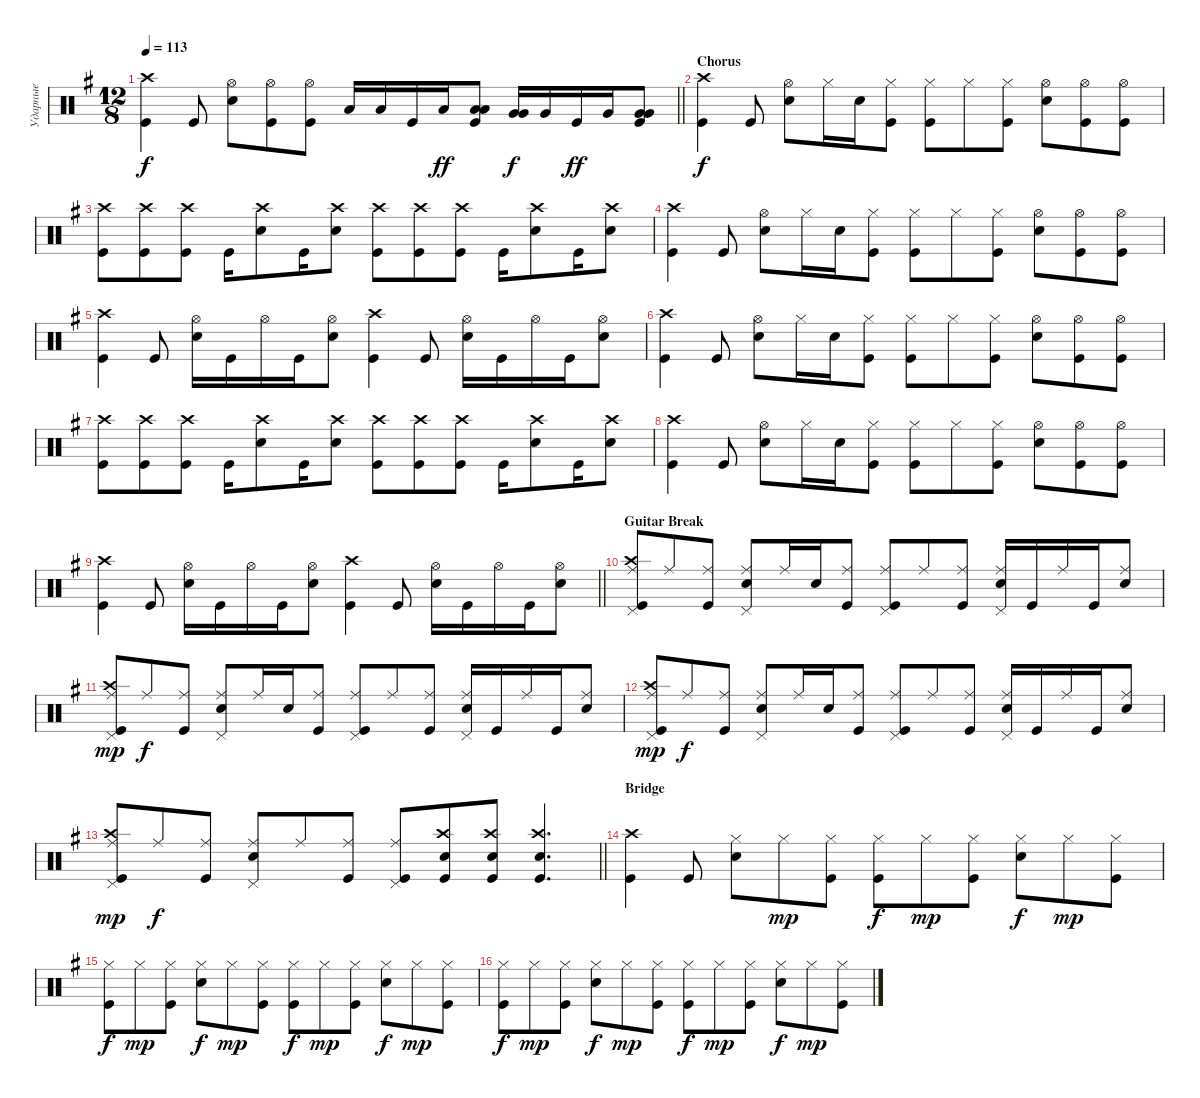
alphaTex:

\track ("Ударные" "Ударные") {instrument percussion}
\staff {score}
\articulation defaults
\ts (12 8)
\tempo 113
\clef neutral
\barLineRight lightlight
\ks eminor
("Kick (hit)" "Crash high (hit)").4{dy f} "Kick (hit)".8 ("Snare (hit) 2" "Hi-Hat (open)").8 ("Kick (hit)" "Hi-Hat (open)").8 ("Kick (hit)" "Hi-Hat (open)").8 "Low Tom (hit)".16 "Low Tom (hit)".16 "Kick (hit)".16 "Low Tom (hit)".16{dy ff} ("Low Tom (hit)" "Low Tom (hit)" "Kick (hit)").8{bd 120} ("Very Low Tom (hit)" "Very Low Tom (hit)").16{bd 120 dy f} "Very Low Tom (hit)".16 "Kick (hit)".16{dy ff} "Very Low Tom (hit)".16 ("Very Low Tom (hit)" "Very Low Tom (hit)" "Kick (hit)").8{bd 120} |
\section ("" "Chorus")
("Kick (hit)" "Crash high (hit)").4{dy f} "Kick (hit)".8 ("Snare (hit) 2" "Hi-Hat (open)").8 "Hi-Hat (closed)".16 "Snare (hit) 2".16 ("Kick (hit)" "Hi-Hat (closed)").8 ("Kick (hit)" "Hi-Hat (closed)").8 "Hi-Hat (closed)".8 ("Hi-Hat (closed)" "Kick (hit)").8 ("Snare (hit) 2" "Hi-Hat (open)").8 ("Hi-Hat (open)" "Kick (hit)").8 ("Hi-Hat (open)" "Kick (hit)").8 |
("Kick (hit)" "Crash high (hit)").8 ("Kick (hit)" "Crash high (hit)").8 ("Kick (hit)" "Crash high (hit)").8 "Kick (hit)".16 ("Snare (hit) 2" "Crash high (hit)").8 "Kick (hit)".16 ("Snare (hit) 2" "Crash high (hit)").8 ("Kick (hit)" "Crash high (hit)").8 ("Kick (hit)" "Crash high (hit)").8 ("Kick (hit)" "Crash high (hit)").8 "Kick (hit)".16 ("Snare (hit) 2" "Crash high (hit)").8 "Kick (hit)".16 ("Snare (hit) 2" "Crash high (hit)").8 |
("Kick (hit)" "Crash high (hit)").4 "Kick (hit)".8 ("Snare (hit) 2" "Hi-Hat (open)").8 "Hi-Hat (closed)".16 "Snare (hit) 2".16 ("Kick (hit)" "Hi-Hat (closed)").8 ("Kick (hit)" "Hi-Hat (closed)").8 "Hi-Hat (closed)".8 ("Hi-Hat (closed)" "Kick (hit)").8 ("Snare (hit) 2" "Hi-Hat (open)").8 ("Hi-Hat (open)" "Kick (hit)").8 ("Hi-Hat (open)" "Kick (hit)").8 |
("Kick (hit)" "Crash high (hit)").4 "Kick (hit)".8 ("Snare (hit) 2" "Hi-Hat (open)").16 "Kick (hit)".16 "Hi-Hat (open)".16 "Kick (hit)".16 ("Hi-Hat (open)" "Snare (hit) 2").8 ("Kick (hit)" "Crash high (hit)").4 "Kick (hit)".8 ("Snare (hit) 2" "Hi-Hat (open)").16 "Kick (hit)".16 "Hi-Hat (open)".16 "Kick (hit)".16 ("Hi-Hat (open)" "Snare (hit) 2").8 |
("Kick (hit)" "Crash high (hit)").4 "Kick (hit)".8 ("Snare (hit) 2" "Hi-Hat (open)").8 "Hi-Hat (closed)".16 "Snare (hit) 2".16 ("Kick (hit)" "Hi-Hat (closed)").8 ("Kick (hit)" "Hi-Hat (closed)").8 "Hi-Hat (closed)".8 ("Hi-Hat (closed)" "Kick (hit)").8 ("Snare (hit) 2" "Hi-Hat (open)").8 ("Hi-Hat (open)" "Kick (hit)").8 ("Hi-Hat (open)" "Kick (hit)").8 |
("Kick (hit)" "Crash high (hit)").8 ("Kick (hit)" "Crash high (hit)").8 ("Kick (hit)" "Crash high (hit)").8 "Kick (hit)".16 ("Snare (hit) 2" "Crash high (hit)").8 "Kick (hit)".16 ("Snare (hit) 2" "Crash high (hit)").8 ("Kick (hit)" "Crash high (hit)").8 ("Kick (hit)" "Crash high (hit)").8 ("Kick (hit)" "Crash high (hit)").8 "Kick (hit)".16 ("Snare (hit) 2" "Crash high (hit)").8 "Kick (hit)".16 ("Snare (hit) 2" "Crash high (hit)").8 |
("Kick (hit)" "Crash high (hit)").4 "Kick (hit)".8 ("Snare (hit) 2" "Hi-Hat (open)").8 "Hi-Hat (closed)".16 "Snare (hit) 2".16 ("Kick (hit)" "Hi-Hat (closed)").8 ("Kick (hit)" "Hi-Hat (closed)").8 "Hi-Hat (closed)".8 ("Hi-Hat (closed)" "Kick (hit)").8 ("Snare (hit) 2" "Hi-Hat (open)").8 ("Hi-Hat (open)" "Kick (hit)").8 ("Hi-Hat (open)" "Kick (hit)").8 |
\barLineRight lightlight
("Kick (hit)" "Crash high (hit)").4 "Kick (hit)".8 ("Snare (hit) 2" "Hi-Hat (open)").16 "Kick (hit)".16 "Hi-Hat (open)".16 "Kick (hit)".16 ("Hi-Hat (open)" "Snare (hit) 2").8 ("Kick (hit)" "Crash high (hit)").4 "Kick (hit)".8 ("Snare (hit) 2" "Hi-Hat (open)").16 "Kick (hit)".16 "Hi-Hat (open)".16 "Kick (hit)".16 ("Hi-Hat (open)" "Snare (hit) 2").8 |
\section ("" "Guitar Break")
("Ride (middle)" "Kick (hit)" "Crash high (hit)" "Pedal Hi-Hat (hit)").8 "Ride (middle)".8 ("Ride (middle)" "Kick (hit)").8 ("Ride (middle)" "Snare (hit) 2" "Pedal Hi-Hat (hit)").8 "Ride (middle)".16 "Snare (hit) 2".16 ("Ride (middle)" "Kick (hit)").8 ("Ride (middle)" "Kick (hit)" "Pedal Hi-Hat (hit)").8 "Ride (middle)".8 ("Ride (middle)" "Kick (hit)").8 ("Ride (middle)" "Snare (hit) 2" "Pedal Hi-Hat (hit)").16 "Kick (hit)".16 "Ride (middle)".16 "Kick (hit)".16 ("Ride (middle)" "Snare (hit) 2").8 |
("Crash high (hit)" "Kick (hit)" "Ride (middle)" "Pedal Hi-Hat (hit)").8{dy mp} "Ride (middle)".8{dy f} ("Ride (middle)" "Kick (hit)").8 ("Ride (middle)" "Snare (hit) 2" "Pedal Hi-Hat (hit)").8 "Ride (middle)".16 "Snare (hit) 2".16 ("Ride (middle)" "Kick (hit)").8 ("Ride (middle)" "Kick (hit)" "Pedal Hi-Hat (hit)").8 "Ride (middle)".8 ("Ride (middle)" "Kick (hit)").8 ("Ride (middle)" "Snare (hit) 2" "Pedal Hi-Hat (hit)").16 "Kick (hit)".16 "Ride (middle)".16 "Kick (hit)".16 ("Ride (middle)" "Snare (hit) 2").8 |
("Crash high (hit)" "Kick (hit)" "Ride (middle)" "Pedal Hi-Hat (hit)").8{dy mp} "Ride (middle)".8{dy f} ("Ride (middle)" "Kick (hit)").8 ("Ride (middle)" "Snare (hit) 2" "Pedal Hi-Hat (hit)").8 "Ride (middle)".16 "Snare (hit) 2".16 ("Ride (middle)" "Kick (hit)").8 ("Ride (middle)" "Kick (hit)" "Pedal Hi-Hat (hit)").8 "Ride (middle)".8 ("Ride (middle)" "Kick (hit)").8 ("Ride (middle)" "Snare (hit) 2" "Pedal Hi-Hat (hit)").16 "Kick (hit)".16 "Ride (middle)".16 "Kick (hit)".16 ("Ride (middle)" "Snare (hit) 2").8 |
\barLineRight lightlight
("Ride (middle)" "Kick (hit)" "Crash high (hit)" "Pedal Hi-Hat (hit)").8{dy mp} "Ride (middle)".8{dy f} ("Ride (middle)" "Kick (hit)").8 ("Ride (middle)" "Snare (hit) 2" "Pedal Hi-Hat (hit)").8 "Ride (middle)".8 ("Ride (middle)" "Kick (hit)").8 ("Ride (middle)" "Kick (hit)" "Pedal Hi-Hat (hit)").8 ("Kick (hit)" "Crash high (hit)" "Snare (hit) 2").8 ("Kick (hit)" "Crash high (hit)" "Snare (hit) 2").8 ("Kick (hit)" "Snare (hit) 2" "Crash high (hit)").4{d} |
\section ("" "Bridge")
("Crash high (hit)" "Kick (hit)").4 "Kick (hit)".8 ("Hi-Hat (closed)" "Snare (hit) 2").8 "Hi-Hat (closed)".8{dy mp} ("Hi-Hat (closed)" "Kick (hit)").8 ("Hi-Hat (closed)" "Kick (hit)").8{dy f} "Hi-Hat (closed)".8{dy mp} ("Hi-Hat (closed)" "Kick (hit)").8 ("Hi-Hat (closed)" "Snare (hit) 2").8{dy f} "Hi-Hat (closed)".8{dy mp} ("Hi-Hat (closed)" "Kick (hit)").8 |
("Hi-Hat (closed)" "Kick (hit)").8{dy f} "Hi-Hat (closed)".8{dy mp} ("Hi-Hat (closed)" "Kick (hit)").8 ("Hi-Hat (closed)" "Snare (hit) 2").8{dy f} "Hi-Hat (closed)".8{dy mp} ("Hi-Hat (closed)" "Kick (hit)").8 ("Hi-Hat (closed)" "Kick (hit)").8{dy f} "Hi-Hat (closed)".8{dy mp} ("Hi-Hat (closed)" "Kick (hit)").8 ("Hi-Hat (closed)" "Snare (hit) 2").8{dy f} "Hi-Hat (closed)".8{dy mp} ("Hi-Hat (closed)" "Kick (hit)").8 |
("Hi-Hat (closed)" "Kick (hit)").8{dy f} "Hi-Hat (closed)".8{dy mp} ("Hi-Hat (closed)" "Kick (hit)").8 ("Hi-Hat (closed)" "Snare (hit) 2").8{dy f} "Hi-Hat (closed)".8{dy mp} ("Hi-Hat (closed)" "Kick (hit)").8 ("Hi-Hat (closed)" "Kick (hit)").8{dy f} "Hi-Hat (closed)".8{dy mp} ("Hi-Hat (closed)" "Kick (hit)").8 ("Hi-Hat (closed)" "Snare (hit) 2").8{dy f} "Hi-Hat (closed)".8{dy mp} ("Hi-Hat (closed)" "Kick (hit)").8
